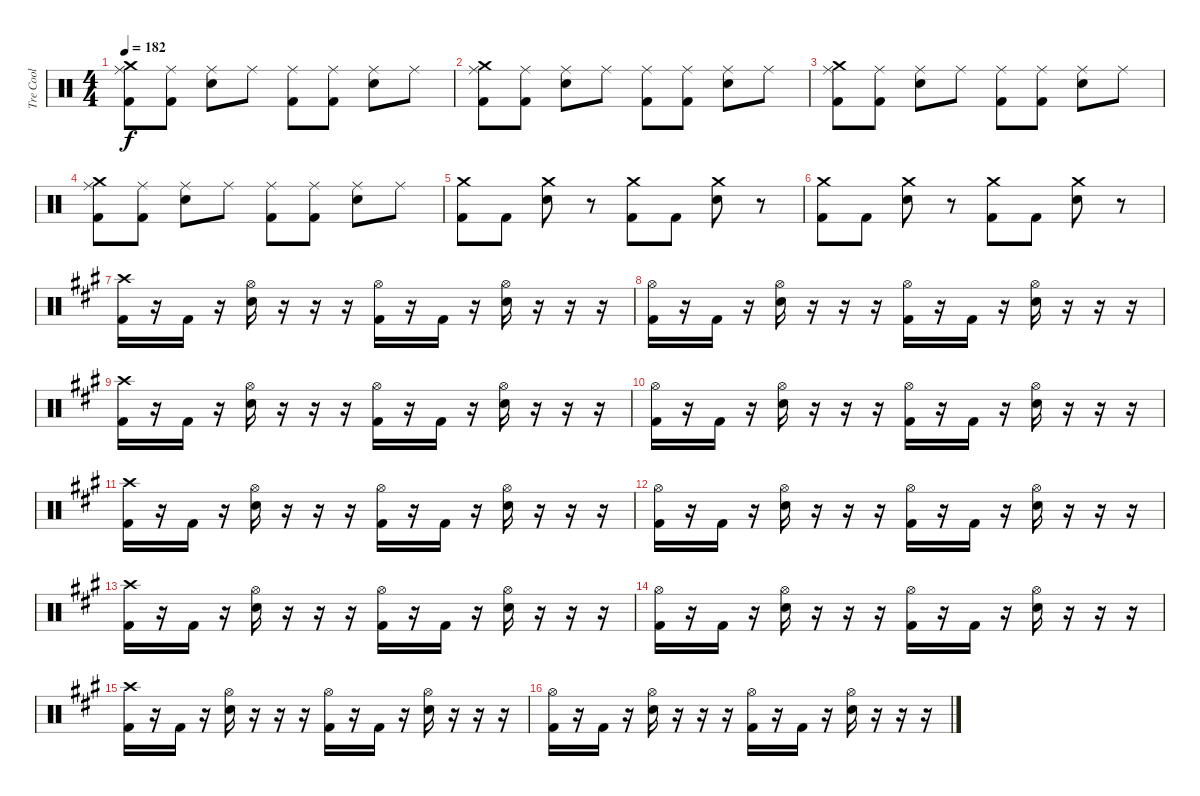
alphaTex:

\track ("Tre Cool" "Tre Cool") {instrument percussion}
\staff {score}
\articulation defaults
\ts (4 4)
\tempo 182
\clef neutral
\ks c
("Crash medium (hit)" "Ride (middle)" "Kick (hit) 2").8{dy f} ("Ride (middle)" "Kick (hit) 2").8 ("Ride (middle)" "Snare (hit) 2").8 "Ride (middle)".8 ("Ride (middle)" "Kick (hit) 2").8 ("Ride (middle)" "Kick (hit) 2").8 ("Ride (middle)" "Snare (hit) 2").8 "Ride (middle)".8 |
("Crash medium (hit)" "Ride (middle)" "Kick (hit) 2").8 ("Ride (middle)" "Kick (hit) 2").8 ("Ride (middle)" "Snare (hit) 2").8 "Ride (middle)".8 ("Ride (middle)" "Kick (hit) 2").8 ("Ride (middle)" "Kick (hit) 2").8 ("Ride (middle)" "Snare (hit) 2").8 "Ride (middle)".8 |
("Crash medium (hit)" "Ride (middle)" "Kick (hit) 2").8 ("Ride (middle)" "Kick (hit) 2").8 ("Ride (middle)" "Snare (hit) 2").8 "Ride (middle)".8 ("Ride (middle)" "Kick (hit) 2").8 ("Ride (middle)" "Kick (hit) 2").8 ("Ride (middle)" "Snare (hit) 2").8 "Ride (middle)".8 |
("Crash medium (hit)" "Ride (middle)" "Kick (hit) 2").8 ("Ride (middle)" "Kick (hit) 2").8 ("Ride (middle)" "Snare (hit) 2").8 "Ride (middle)".8 ("Ride (middle)" "Kick (hit) 2").8 ("Ride (middle)" "Kick (hit) 2").8 ("Ride (middle)" "Snare (hit) 2").8 "Ride (middle)".8 |
("Crash medium (hit)" "Kick (hit) 2").8 "Kick (hit) 2".8 ("Crash medium (hit)" "Snare (hit) 2").8 r.8 ("Crash medium (hit)" "Kick (hit) 2").8 "Kick (hit) 2".8 ("Crash medium (hit)" "Snare (hit) 2").8 r.8 |
("Crash medium (hit)" "Kick (hit) 2").8 "Kick (hit) 2".8 ("Crash medium (hit)" "Snare (hit) 2").8 r.8 ("Crash medium (hit)" "Kick (hit) 2").8 "Kick (hit) 2".8 ("Crash medium (hit)" "Snare (hit) 2").8 r.8 |
\ks a
("Crash high (hit)" "Kick (hit) 2").16 r.16 "Kick (hit) 2".16 r.16 ("Hi-Hat (open)" "Snare (hit) 2").16 r.16 r.16 r.16 ("Hi-Hat (open)" "Kick (hit) 2").16 r.16 "Kick (hit) 2".16 r.16 ("Hi-Hat (open)" "Snare (hit) 2").16 r.16 r.16 r.16 |
("Hi-Hat (open)" "Kick (hit) 2").16 r.16 "Kick (hit) 2".16 r.16 ("Hi-Hat (open)" "Snare (hit) 2").16 r.16 r.16 r.16 ("Hi-Hat (open)" "Kick (hit) 2").16 r.16 "Kick (hit) 2".16 r.16 ("Hi-Hat (open)" "Snare (hit) 2").16 r.16 r.16 r.16 |
("Crash high (hit)" "Kick (hit) 2").16 r.16 "Kick (hit) 2".16 r.16 ("Hi-Hat (open)" "Snare (hit) 2").16 r.16 r.16 r.16 ("Hi-Hat (open)" "Kick (hit) 2").16 r.16 "Kick (hit) 2".16 r.16 ("Hi-Hat (open)" "Snare (hit) 2").16 r.16 r.16 r.16 |
("Hi-Hat (open)" "Kick (hit) 2").16 r.16 "Kick (hit) 2".16 r.16 ("Hi-Hat (open)" "Snare (hit) 2").16 r.16 r.16 r.16 ("Hi-Hat (open)" "Kick (hit) 2").16 r.16 "Kick (hit) 2".16 r.16 ("Hi-Hat (open)" "Snare (hit) 2").16 r.16 r.16 r.16 |
("Crash high (hit)" "Kick (hit) 2").16 r.16 "Kick (hit) 2".16 r.16 ("Hi-Hat (open)" "Snare (hit) 2").16 r.16 r.16 r.16 ("Hi-Hat (open)" "Kick (hit) 2").16 r.16 "Kick (hit) 2".16 r.16 ("Hi-Hat (open)" "Snare (hit) 2").16 r.16 r.16 r.16 |
("Hi-Hat (open)" "Kick (hit) 2").16 r.16 "Kick (hit) 2".16 r.16 ("Hi-Hat (open)" "Snare (hit) 2").16 r.16 r.16 r.16 ("Hi-Hat (open)" "Kick (hit) 2").16 r.16 "Kick (hit) 2".16 r.16 ("Hi-Hat (open)" "Snare (hit) 2").16 r.16 r.16 r.16 |
("Crash high (hit)" "Kick (hit) 2").16 r.16 "Kick (hit) 2".16 r.16 ("Hi-Hat (open)" "Snare (hit) 2").16 r.16 r.16 r.16 ("Hi-Hat (open)" "Kick (hit) 2").16 r.16 "Kick (hit) 2".16 r.16 ("Hi-Hat (open)" "Snare (hit) 2").16 r.16 r.16 r.16 |
("Hi-Hat (open)" "Kick (hit) 2").16 r.16 "Kick (hit) 2".16 r.16 ("Hi-Hat (open)" "Snare (hit) 2").16 r.16 r.16 r.16 ("Hi-Hat (open)" "Kick (hit) 2").16 r.16 "Kick (hit) 2".16 r.16 ("Hi-Hat (open)" "Snare (hit) 2").16 r.16 r.16 r.16 |
("Crash high (hit)" "Kick (hit) 2").16 r.16 "Kick (hit) 2".16 r.16 ("Hi-Hat (open)" "Snare (hit) 2").16 r.16 r.16 r.16 ("Hi-Hat (open)" "Kick (hit) 2").16 r.16 "Kick (hit) 2".16 r.16 ("Hi-Hat (open)" "Snare (hit) 2").16 r.16 r.16 r.16 |
("Hi-Hat (open)" "Kick (hit) 2").16 r.16 "Kick (hit) 2".16 r.16 ("Hi-Hat (open)" "Snare (hit) 2").16 r.16 r.16 r.16 ("Hi-Hat (open)" "Kick (hit) 2").16 r.16 "Kick (hit) 2".16 r.16 ("Hi-Hat (open)" "Snare (hit) 2").16 r.16 r.16 r.16
